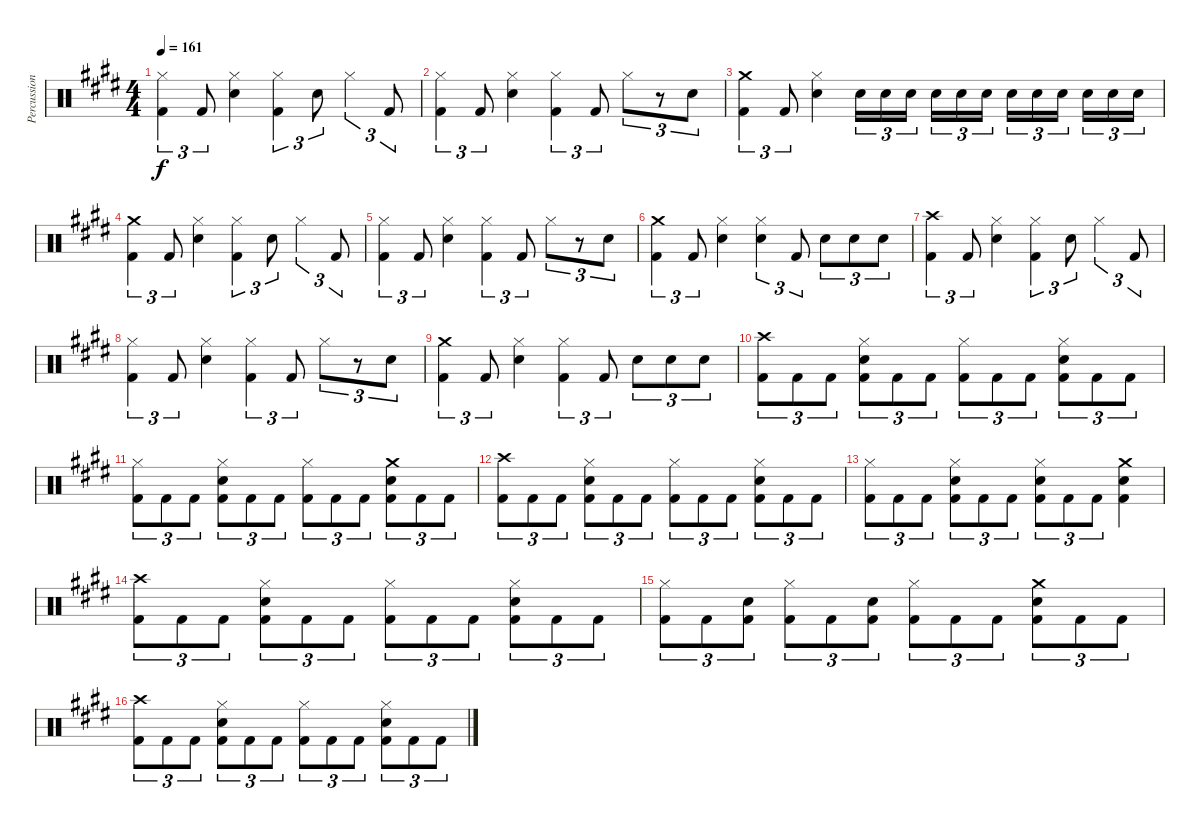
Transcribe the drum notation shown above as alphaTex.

\track ("Percussion" "Percussion") {instrument percussion}
\staff {score}
\articulation defaults
\ts (4 4)
\tempo 161
\clef neutral
\ks e
("Hi-Hat (closed)" "Kick (hit) 2").4{tu (3 2) dy f} "Kick (hit) 2".8{tu (3 2)} ("Hi-Hat (closed)" "Snare (hit) 2").4 ("Hi-Hat (closed)" "Kick (hit) 2").4{tu (3 2)} "Snare (hit) 2".8{tu (3 2)} "Hi-Hat (closed)".4{tu (3 2)} "Kick (hit) 2".8{tu (3 2)} |
("Hi-Hat (closed)" "Kick (hit) 2").4{tu (3 2)} "Kick (hit) 2".8{tu (3 2)} ("Hi-Hat (closed)" "Snare (hit) 2").4 ("Hi-Hat (closed)" "Kick (hit) 2").4{tu (3 2)} "Kick (hit) 2".8{tu (3 2)} "Hi-Hat (closed)".8{tu (3 2)} r.8{tu (3 2)} "Snare (hit) 2".8{tu (3 2)} |
("Crash medium (hit)" "Kick (hit) 2").4{tu (3 2)} "Kick (hit) 2".8{tu (3 2)} ("Hi-Hat (closed)" "Snare (hit) 2").4 "Snare (hit) 2".16{tu (3 2)} "Snare (hit) 2".16{tu (3 2)} "Snare (hit) 2".16{tu (3 2) beam splitsecondary} "Snare (hit) 2".16{tu (3 2)} "Snare (hit) 2".16{tu (3 2)} "Snare (hit) 2".16{tu (3 2)} "Snare (hit) 2".16{tu (3 2)} "Snare (hit) 2".16{tu (3 2)} "Snare (hit) 2".16{tu (3 2) beam splitsecondary} "Snare (hit) 2".16{tu (3 2)} "Snare (hit) 2".16{tu (3 2)} "Snare (hit) 2".16{tu (3 2)} |
("Crash medium (hit)" "Kick (hit) 2").4{tu (3 2)} "Kick (hit) 2".8{tu (3 2)} ("Hi-Hat (closed)" "Snare (hit) 2").4 ("Hi-Hat (closed)" "Kick (hit) 2").4{tu (3 2)} "Snare (hit) 2".8{tu (3 2)} "Hi-Hat (closed)".4{tu (3 2)} "Kick (hit) 2".8{tu (3 2)} |
("Hi-Hat (closed)" "Kick (hit) 2").4{tu (3 2)} "Kick (hit) 2".8{tu (3 2)} ("Hi-Hat (closed)" "Snare (hit) 2").4 ("Hi-Hat (closed)" "Kick (hit) 2").4{tu (3 2)} "Kick (hit) 2".8{tu (3 2)} "Hi-Hat (closed)".8{tu (3 2)} r.8{tu (3 2)} "Snare (hit) 2".8{tu (3 2)} |
("Crash medium (hit)" "Kick (hit) 2").4{tu (3 2)} "Kick (hit) 2".8{tu (3 2)} ("Hi-Hat (closed)" "Snare (hit) 2").4 ("Hi-Hat (closed)" "Snare (hit) 2").4{tu (3 2)} "Kick (hit) 2".8{tu (3 2)} "Snare (hit) 2".8{tu (3 2)} "Snare (hit) 2".8{tu (3 2)} "Snare (hit) 2".8{tu (3 2)} |
("Crash high (hit)" "Kick (hit) 2").4{tu (3 2)} "Kick (hit) 2".8{tu (3 2)} ("Hi-Hat (closed)" "Snare (hit) 2").4 ("Hi-Hat (closed)" "Kick (hit) 2").4{tu (3 2)} "Snare (hit) 2".8{tu (3 2)} "Hi-Hat (closed)".4{tu (3 2)} "Kick (hit) 2".8{tu (3 2)} |
("Hi-Hat (closed)" "Kick (hit) 2").4{tu (3 2)} "Kick (hit) 2".8{tu (3 2)} ("Hi-Hat (closed)" "Snare (hit) 2").4 ("Hi-Hat (closed)" "Kick (hit) 2").4{tu (3 2)} "Kick (hit) 2".8{tu (3 2)} "Hi-Hat (closed)".8{tu (3 2)} r.8{tu (3 2)} "Snare (hit) 2".8{tu (3 2)} |
("Crash medium (hit)" "Kick (hit) 2").4{tu (3 2)} "Kick (hit) 2".8{tu (3 2)} ("Hi-Hat (closed)" "Snare (hit) 2").4 ("Hi-Hat (closed)" "Kick (hit) 2").4{tu (3 2)} "Kick (hit) 2".8{tu (3 2)} "Snare (hit) 2".8{tu (3 2)} "Snare (hit) 2".8{tu (3 2)} "Snare (hit) 2".8{tu (3 2)} |
("Crash high (hit)" "Kick (hit) 2").8{tu (3 2)} "Kick (hit) 2".8{tu (3 2)} "Kick (hit) 2".8{tu (3 2)} ("Hi-Hat (closed)" "Snare (hit) 2" "Kick (hit) 2").8{tu (3 2)} "Kick (hit) 2".8{tu (3 2)} "Kick (hit) 2".8{tu (3 2)} ("Hi-Hat (closed)" "Kick (hit) 2").8{tu (3 2)} "Kick (hit) 2".8{tu (3 2)} "Kick (hit) 2".8{tu (3 2)} ("Hi-Hat (closed)" "Snare (hit) 2" "Kick (hit) 2").8{tu (3 2)} "Kick (hit) 2".8{tu (3 2)} "Kick (hit) 2".8{tu (3 2)} |
("Hi-Hat (closed)" "Kick (hit) 2").8{tu (3 2)} "Kick (hit) 2".8{tu (3 2)} "Kick (hit) 2".8{tu (3 2)} ("Hi-Hat (closed)" "Snare (hit) 2" "Kick (hit) 2").8{tu (3 2)} "Kick (hit) 2".8{tu (3 2)} "Kick (hit) 2".8{tu (3 2)} ("Hi-Hat (closed)" "Kick (hit) 2").8{tu (3 2)} "Kick (hit) 2".8{tu (3 2)} "Kick (hit) 2".8{tu (3 2)} ("Crash medium (hit)" "Snare (hit) 2" "Kick (hit) 2").8{tu (3 2)} "Kick (hit) 2".8{tu (3 2)} "Kick (hit) 2".8{tu (3 2)} |
("Crash high (hit)" "Kick (hit) 2").8{tu (3 2)} "Kick (hit) 2".8{tu (3 2)} "Kick (hit) 2".8{tu (3 2)} ("Hi-Hat (closed)" "Snare (hit) 2" "Kick (hit) 2").8{tu (3 2)} "Kick (hit) 2".8{tu (3 2)} "Kick (hit) 2".8{tu (3 2)} ("Hi-Hat (closed)" "Kick (hit) 2").8{tu (3 2)} "Kick (hit) 2".8{tu (3 2)} "Kick (hit) 2".8{tu (3 2)} ("Hi-Hat (closed)" "Snare (hit) 2" "Kick (hit) 2").8{tu (3 2)} "Kick (hit) 2".8{tu (3 2)} "Kick (hit) 2".8{tu (3 2)} |
("Hi-Hat (closed)" "Kick (hit) 2").8{tu (3 2)} "Kick (hit) 2".8{tu (3 2)} "Kick (hit) 2".8{tu (3 2)} ("Hi-Hat (closed)" "Snare (hit) 2" "Kick (hit) 2").8{tu (3 2)} "Kick (hit) 2".8{tu (3 2)} "Kick (hit) 2".8{tu (3 2)} ("Hi-Hat (closed)" "Snare (hit) 2" "Kick (hit) 2").8{tu (3 2)} "Kick (hit) 2".8{tu (3 2)} "Kick (hit) 2".8{tu (3 2)} ("Crash medium (hit)" "Snare (hit) 2" "Kick (hit) 2").4 |
("Crash high (hit)" "Kick (hit) 2").8{tu (3 2)} "Kick (hit) 2".8{tu (3 2)} "Kick (hit) 2".8{tu (3 2)} ("Hi-Hat (closed)" "Snare (hit) 2" "Kick (hit) 2").8{tu (3 2)} "Kick (hit) 2".8{tu (3 2)} "Kick (hit) 2".8{tu (3 2)} ("Hi-Hat (closed)" "Kick (hit) 2").8{tu (3 2)} "Kick (hit) 2".8{tu (3 2)} "Kick (hit) 2".8{tu (3 2)} ("Hi-Hat (closed)" "Snare (hit) 2" "Kick (hit) 2").8{tu (3 2)} "Kick (hit) 2".8{tu (3 2)} "Kick (hit) 2".8{tu (3 2)} |
("Hi-Hat (closed)" "Kick (hit) 2").8{tu (3 2)} "Kick (hit) 2".8{tu (3 2)} ("Snare (hit) 2" "Kick (hit) 2").8{tu (3 2)} ("Hi-Hat (closed)" "Kick (hit) 2").8{tu (3 2)} "Kick (hit) 2".8{tu (3 2)} ("Snare (hit) 2" "Kick (hit) 2").8{tu (3 2)} ("Hi-Hat (closed)" "Kick (hit) 2").8{tu (3 2)} "Kick (hit) 2".8{tu (3 2)} "Kick (hit) 2".8{tu (3 2)} ("Crash medium (hit)" "Snare (hit) 2" "Kick (hit) 2").8{tu (3 2)} "Kick (hit) 2".8{tu (3 2)} "Kick (hit) 2".8{tu (3 2)} |
("Crash high (hit)" "Kick (hit) 2").8{tu (3 2)} "Kick (hit) 2".8{tu (3 2)} "Kick (hit) 2".8{tu (3 2)} ("Hi-Hat (closed)" "Snare (hit) 2" "Kick (hit) 2").8{tu (3 2)} "Kick (hit) 2".8{tu (3 2)} "Kick (hit) 2".8{tu (3 2)} ("Hi-Hat (closed)" "Kick (hit) 2").8{tu (3 2)} "Kick (hit) 2".8{tu (3 2)} "Kick (hit) 2".8{tu (3 2)} ("Hi-Hat (closed)" "Snare (hit) 2" "Kick (hit) 2").8{tu (3 2)} "Kick (hit) 2".8{tu (3 2)} "Kick (hit) 2".8{tu (3 2)}
